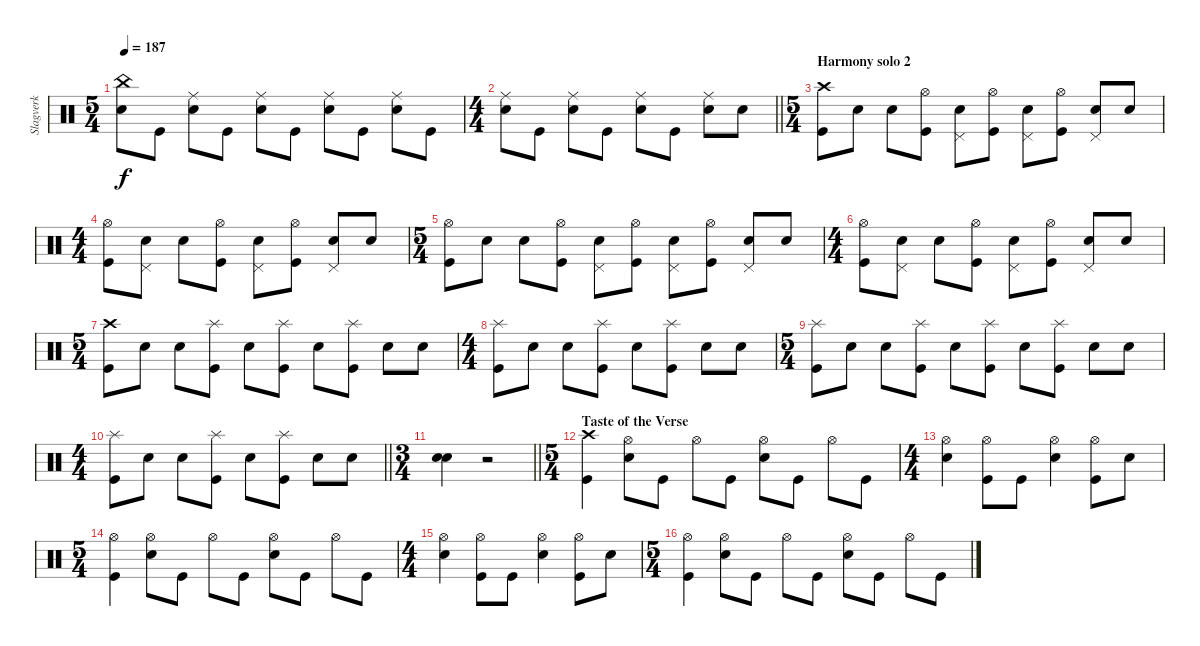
\track ("Slagverk" "Slagverk") {instrument percussion}
\staff {score}
\articulation defaults
\ts (5 4)
\tempo 187
\clef neutral
\ks c
("China (hit)" "Electric Snare (hit)").8{dy f} "Kick (hit)".8 ("Ride (middle)" "Electric Snare (hit)").8 "Kick (hit)".8 ("Ride (middle)" "Electric Snare (hit)").8 "Kick (hit)".8 ("Ride (middle)" "Electric Snare (hit)").8 "Kick (hit)".8 ("Ride (middle)" "Electric Snare (hit)").8 "Kick (hit)".8 |
\ts (4 4)
\barLineRight lightlight
("Ride (middle)" "Electric Snare (hit)").8 "Kick (hit)".8 ("Ride (middle)" "Electric Snare (hit)").8 "Kick (hit)".8 ("Ride (middle)" "Electric Snare (hit)").8 "Kick (hit)".8 ("Ride (middle)" "Electric Snare (hit)").8 "Electric Snare (hit)".8 |
\ts (5 4)
\section ("" "Harmony solo 2")
("Crash high (hit)" "Kick (hit)").8 "Electric Snare (hit)".8 "Electric Snare (hit)".8 ("Hi-Hat (open)" "Kick (hit)").8 ("Pedal Hi-Hat (hit)" "Electric Snare (hit)").8 ("Hi-Hat (open)" "Kick (hit)").8 ("Pedal Hi-Hat (hit)" "Electric Snare (hit)").8 ("Hi-Hat (open)" "Kick (hit)").8 ("Pedal Hi-Hat (hit)" "Electric Snare (hit)").8 "Electric Snare (hit)".8 |
\ts (4 4)
("Hi-Hat (open)" "Kick (hit)").8 ("Pedal Hi-Hat (hit)" "Electric Snare (hit)").8 "Electric Snare (hit)".8 ("Hi-Hat (open)" "Kick (hit)").8 ("Pedal Hi-Hat (hit)" "Electric Snare (hit)").8 ("Hi-Hat (open)" "Kick (hit)").8 ("Pedal Hi-Hat (hit)" "Electric Snare (hit)").8 "Electric Snare (hit)".8 |
\ts (5 4)
("Hi-Hat (open)" "Kick (hit)").8 "Electric Snare (hit)".8 "Electric Snare (hit)".8 ("Hi-Hat (open)" "Kick (hit)").8 ("Pedal Hi-Hat (hit)" "Electric Snare (hit)").8 ("Hi-Hat (open)" "Kick (hit)").8 ("Pedal Hi-Hat (hit)" "Electric Snare (hit)").8 ("Hi-Hat (open)" "Kick (hit)").8 ("Pedal Hi-Hat (hit)" "Electric Snare (hit)").8 "Electric Snare (hit)".8 |
\ts (4 4)
("Hi-Hat (open)" "Kick (hit)").8 ("Pedal Hi-Hat (hit)" "Electric Snare (hit)").8 "Electric Snare (hit)".8 ("Hi-Hat (open)" "Kick (hit)").8 ("Pedal Hi-Hat (hit)" "Electric Snare (hit)").8 ("Hi-Hat (open)" "Kick (hit)").8 ("Pedal Hi-Hat (hit)" "Electric Snare (hit)").8 "Electric Snare (hit)".8 |
\ts (5 4)
("Crash high (hit)" "Kick (hit)").8 "Electric Snare (hit)".8 "Electric Snare (hit)".8 ("Splash (hit)" "Kick (hit)").8 "Electric Snare (hit)".8 ("Splash (hit)" "Kick (hit)").8 "Electric Snare (hit)".8 ("Splash (hit)" "Kick (hit)").8 "Electric Snare (hit)".8 "Electric Snare (hit)".8 |
\ts (4 4)
("Splash (hit)" "Kick (hit)").8 "Electric Snare (hit)".8 "Electric Snare (hit)".8 ("Splash (hit)" "Kick (hit)").8 "Electric Snare (hit)".8 ("Splash (hit)" "Kick (hit)").8 "Electric Snare (hit)".8 "Electric Snare (hit)".8 |
\ts (5 4)
("Splash (hit)" "Kick (hit)").8 "Electric Snare (hit)".8 "Electric Snare (hit)".8 ("Splash (hit)" "Kick (hit)").8 "Electric Snare (hit)".8 ("Splash (hit)" "Kick (hit)").8 "Electric Snare (hit)".8 ("Splash (hit)" "Kick (hit)").8 "Electric Snare (hit)".8 "Electric Snare (hit)".8 |
\ts (4 4)
\barLineRight lightlight
("Splash (hit)" "Kick (hit)").8 "Electric Snare (hit)".8 "Electric Snare (hit)".8 ("Splash (hit)" "Kick (hit)").8 "Electric Snare (hit)".8 ("Splash (hit)" "Kick (hit)").8 "Electric Snare (hit)".8 "Electric Snare (hit)".8 |
\ts (3 4)
\barLineRight lightlight
("Electric Snare (hit)" "Electric Snare (hit)").4 r.2 |
\ts (5 4)
\section ("" "Taste of the Verse")
("Crash high (hit)" "Kick (hit)").4 ("Hi-Hat (open)" "Electric Snare (hit)").8 "Kick (hit)".8 "Hi-Hat (open)".8 "Kick (hit)".8 ("Hi-Hat (open)" "Electric Snare (hit)").8 "Kick (hit)".8 "Hi-Hat (open)".8 "Kick (hit)".8 |
\ts (4 4)
("Hi-Hat (open)" "Electric Snare (hit)").4 ("Hi-Hat (open)" "Kick (hit)").8 "Kick (hit)".8 ("Hi-Hat (open)" "Electric Snare (hit)").4 ("Hi-Hat (open)" "Kick (hit)").8 "Electric Snare (hit)".8 |
\ts (5 4)
("Hi-Hat (open)" "Kick (hit)").4 ("Hi-Hat (open)" "Electric Snare (hit)").8 "Kick (hit)".8 "Hi-Hat (open)".8 "Kick (hit)".8 ("Hi-Hat (open)" "Electric Snare (hit)").8 "Kick (hit)".8 "Hi-Hat (open)".8 "Kick (hit)".8 |
\ts (4 4)
("Hi-Hat (open)" "Electric Snare (hit)").4 ("Hi-Hat (open)" "Kick (hit)").8 "Kick (hit)".8 ("Hi-Hat (open)" "Electric Snare (hit)").4 ("Hi-Hat (open)" "Kick (hit)").8 "Electric Snare (hit)".8 |
\ts (5 4)
("Hi-Hat (open)" "Kick (hit)").4 ("Hi-Hat (open)" "Electric Snare (hit)").8 "Kick (hit)".8 "Hi-Hat (open)".8 "Kick (hit)".8 ("Hi-Hat (open)" "Electric Snare (hit)").8 "Kick (hit)".8 "Hi-Hat (open)".8 "Kick (hit)".8
